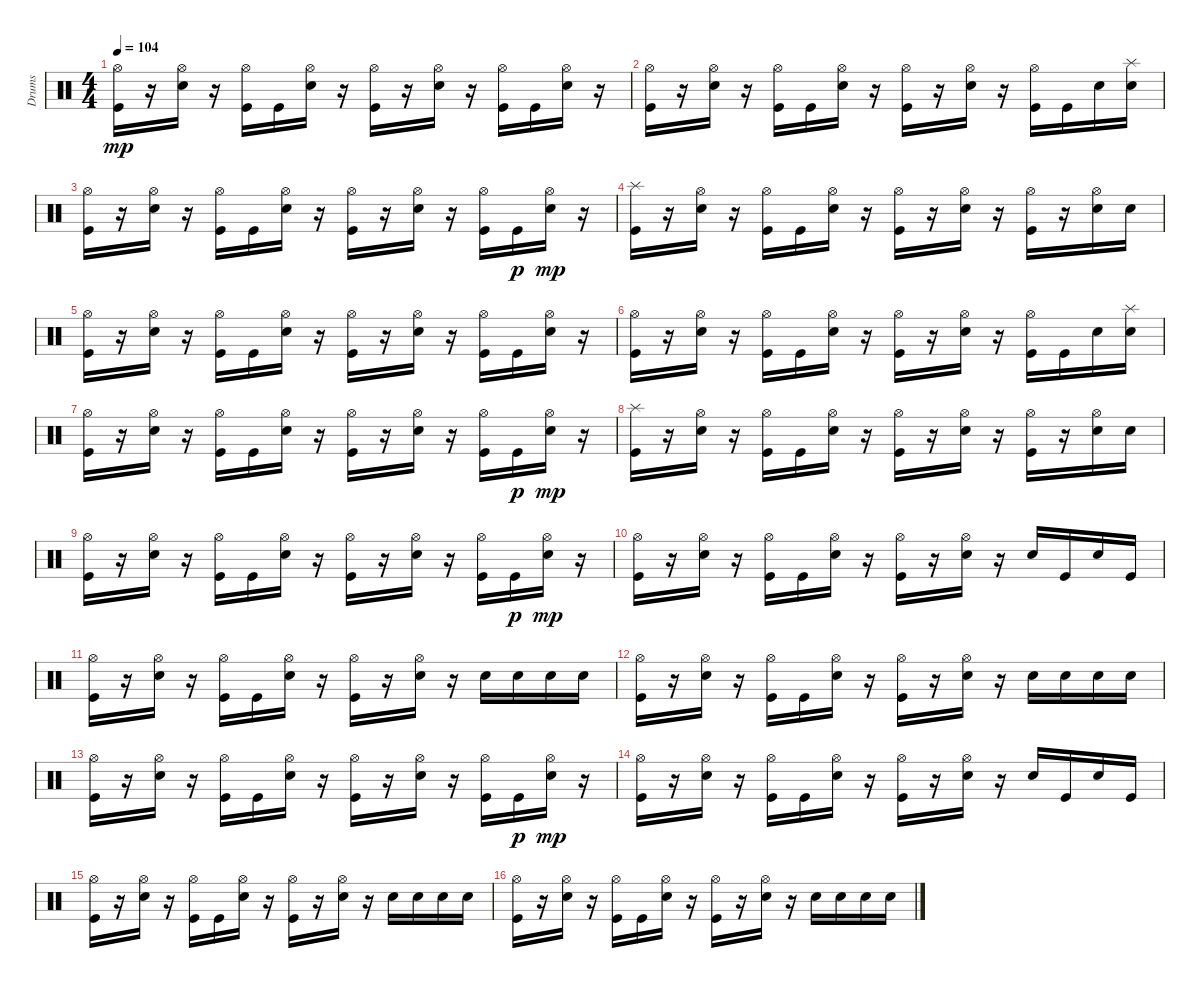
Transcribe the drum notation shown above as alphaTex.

\track ("Drums" "Drums") {instrument percussion}
\staff {score}
\articulation defaults
\ts (4 4)
\tempo 104
\clef neutral
\ks c
("Hi-Hat (open)" "Kick (hit)").16{dy mp} r.16 ("Hi-Hat (open)" "Snare (hit) 2").16 r.16 ("Hi-Hat (open)" "Kick (hit)").16 "Kick (hit)".16 ("Hi-Hat (open)" "Snare (hit) 2").16 r.16 ("Hi-Hat (open)" "Kick (hit)").16 r.16 ("Hi-Hat (open)" "Snare (hit) 2").16 r.16 ("Hi-Hat (open)" "Kick (hit)").16 "Kick (hit)".16 ("Hi-Hat (open)" "Snare (hit) 2").16 r.16 |
("Hi-Hat (open)" "Kick (hit)").16 r.16 ("Hi-Hat (open)" "Snare (hit) 2").16 r.16 ("Hi-Hat (open)" "Kick (hit)").16 "Kick (hit)".16 ("Hi-Hat (open)" "Snare (hit) 2").16 r.16 ("Hi-Hat (open)" "Kick (hit)").16 r.16 ("Hi-Hat (open)" "Snare (hit) 2").16 r.16 ("Hi-Hat (open)" "Kick (hit)").16 "Kick (hit)".16 "Snare (hit) 2".16 ("Splash (hit)" "Snare (hit) 2").16 |
("Hi-Hat (open)" "Kick (hit)").16 r.16 ("Hi-Hat (open)" "Snare (hit) 2").16 r.16 ("Hi-Hat (open)" "Kick (hit)").16 "Kick (hit)".16 ("Hi-Hat (open)" "Snare (hit) 2").16 r.16 ("Hi-Hat (open)" "Kick (hit)").16 r.16 ("Hi-Hat (open)" "Snare (hit) 2").16 r.16 ("Hi-Hat (open)" "Kick (hit)").16 "Kick (hit)".16{dy p} ("Hi-Hat (open)" "Snare (hit) 2").16{dy mp} r.16 |
("Splash (hit)" "Kick (hit)").16 r.16 ("Hi-Hat (open)" "Snare (hit) 2").16 r.16 ("Hi-Hat (open)" "Kick (hit)").16 "Kick (hit)".16 ("Hi-Hat (open)" "Snare (hit) 2").16 r.16 ("Hi-Hat (open)" "Kick (hit)").16 r.16 ("Hi-Hat (open)" "Snare (hit) 2").16 r.16 ("Hi-Hat (open)" "Kick (hit)").16 r.16 ("Hi-Hat (open)" "Snare (hit) 2").16 "Snare (hit) 2".16 |
("Hi-Hat (open)" "Kick (hit)").16 r.16 ("Hi-Hat (open)" "Snare (hit) 2").16 r.16 ("Hi-Hat (open)" "Kick (hit)").16 "Kick (hit)".16 ("Hi-Hat (open)" "Snare (hit) 2").16 r.16 ("Hi-Hat (open)" "Kick (hit)").16 r.16 ("Hi-Hat (open)" "Snare (hit) 2").16 r.16 ("Hi-Hat (open)" "Kick (hit)").16 "Kick (hit)".16 ("Hi-Hat (open)" "Snare (hit) 2").16 r.16 |
("Hi-Hat (open)" "Kick (hit)").16 r.16 ("Hi-Hat (open)" "Snare (hit) 2").16 r.16 ("Hi-Hat (open)" "Kick (hit)").16 "Kick (hit)".16 ("Hi-Hat (open)" "Snare (hit) 2").16 r.16 ("Hi-Hat (open)" "Kick (hit)").16 r.16 ("Hi-Hat (open)" "Snare (hit) 2").16 r.16 ("Hi-Hat (open)" "Kick (hit)").16 "Kick (hit)".16 "Snare (hit) 2".16 ("Splash (hit)" "Snare (hit) 2").16 |
("Hi-Hat (open)" "Kick (hit)").16 r.16 ("Hi-Hat (open)" "Snare (hit) 2").16 r.16 ("Hi-Hat (open)" "Kick (hit)").16 "Kick (hit)".16 ("Hi-Hat (open)" "Snare (hit) 2").16 r.16 ("Hi-Hat (open)" "Kick (hit)").16 r.16 ("Hi-Hat (open)" "Snare (hit) 2").16 r.16 ("Hi-Hat (open)" "Kick (hit)").16 "Kick (hit)".16{dy p} ("Hi-Hat (open)" "Snare (hit) 2").16{dy mp} r.16 |
("Splash (hit)" "Kick (hit)").16 r.16 ("Hi-Hat (open)" "Snare (hit) 2").16 r.16 ("Hi-Hat (open)" "Kick (hit)").16 "Kick (hit)".16 ("Hi-Hat (open)" "Snare (hit) 2").16 r.16 ("Hi-Hat (open)" "Kick (hit)").16 r.16 ("Hi-Hat (open)" "Snare (hit) 2").16 r.16 ("Hi-Hat (open)" "Kick (hit)").16 r.16 ("Hi-Hat (open)" "Snare (hit) 2").16 "Snare (hit) 2".16 |
("Hi-Hat (open)" "Kick (hit)").16 r.16 ("Hi-Hat (open)" "Snare (hit) 2").16 r.16 ("Hi-Hat (open)" "Kick (hit)").16 "Kick (hit)".16 ("Hi-Hat (open)" "Snare (hit) 2").16 r.16 ("Hi-Hat (open)" "Kick (hit)").16 r.16 ("Hi-Hat (open)" "Snare (hit) 2").16 r.16 ("Hi-Hat (open)" "Kick (hit)").16 "Kick (hit)".16{dy p} ("Hi-Hat (open)" "Snare (hit) 2").16{dy mp} r.16 |
("Hi-Hat (open)" "Kick (hit)").16 r.16 ("Hi-Hat (open)" "Snare (hit) 2").16 r.16 ("Hi-Hat (open)" "Kick (hit)").16 "Kick (hit)".16 ("Hi-Hat (open)" "Snare (hit) 2").16 r.16 ("Hi-Hat (open)" "Kick (hit)").16 r.16 ("Hi-Hat (open)" "Snare (hit) 2").16 r.16 "Snare (hit) 2".16 "Kick (hit)".16 "Snare (hit) 2".16 "Kick (hit)".16 |
("Hi-Hat (open)" "Kick (hit)").16 r.16 ("Hi-Hat (open)" "Snare (hit) 2").16 r.16 ("Hi-Hat (open)" "Kick (hit)").16 "Kick (hit)".16 ("Hi-Hat (open)" "Snare (hit) 2").16 r.16 ("Hi-Hat (open)" "Kick (hit)").16 r.16 ("Hi-Hat (open)" "Snare (hit) 2").16 r.16 "Snare (hit) 2".16 "Snare (hit) 2".16 "Snare (hit) 2".16 "Snare (hit) 2".16 |
("Hi-Hat (open)" "Kick (hit)").16 r.16 ("Hi-Hat (open)" "Snare (hit) 2").16 r.16 ("Hi-Hat (open)" "Kick (hit)").16 "Kick (hit)".16 ("Hi-Hat (open)" "Snare (hit) 2").16 r.16 ("Hi-Hat (open)" "Kick (hit)").16 r.16 ("Hi-Hat (open)" "Snare (hit) 2").16 r.16 "Snare (hit) 2".16 "Snare (hit) 2".16 "Snare (hit) 2".16 "Snare (hit) 2".16 |
("Hi-Hat (open)" "Kick (hit)").16 r.16 ("Hi-Hat (open)" "Snare (hit) 2").16 r.16 ("Hi-Hat (open)" "Kick (hit)").16 "Kick (hit)".16 ("Hi-Hat (open)" "Snare (hit) 2").16 r.16 ("Hi-Hat (open)" "Kick (hit)").16 r.16 ("Hi-Hat (open)" "Snare (hit) 2").16 r.16 ("Hi-Hat (open)" "Kick (hit)").16 "Kick (hit)".16{dy p} ("Hi-Hat (open)" "Snare (hit) 2").16{dy mp} r.16 |
("Hi-Hat (open)" "Kick (hit)").16 r.16 ("Hi-Hat (open)" "Snare (hit) 2").16 r.16 ("Hi-Hat (open)" "Kick (hit)").16 "Kick (hit)".16 ("Hi-Hat (open)" "Snare (hit) 2").16 r.16 ("Hi-Hat (open)" "Kick (hit)").16 r.16 ("Hi-Hat (open)" "Snare (hit) 2").16 r.16 "Snare (hit) 2".16 "Kick (hit)".16 "Snare (hit) 2".16 "Kick (hit)".16 |
("Hi-Hat (open)" "Kick (hit)").16 r.16 ("Hi-Hat (open)" "Snare (hit) 2").16 r.16 ("Hi-Hat (open)" "Kick (hit)").16 "Kick (hit)".16 ("Hi-Hat (open)" "Snare (hit) 2").16 r.16 ("Hi-Hat (open)" "Kick (hit)").16 r.16 ("Hi-Hat (open)" "Snare (hit) 2").16 r.16 "Snare (hit) 2".16 "Snare (hit) 2".16 "Snare (hit) 2".16 "Snare (hit) 2".16 |
("Hi-Hat (open)" "Kick (hit)").16 r.16 ("Hi-Hat (open)" "Snare (hit) 2").16 r.16 ("Hi-Hat (open)" "Kick (hit)").16 "Kick (hit)".16 ("Hi-Hat (open)" "Snare (hit) 2").16 r.16 ("Hi-Hat (open)" "Kick (hit)").16 r.16 ("Hi-Hat (open)" "Snare (hit) 2").16 r.16 "Snare (hit) 2".16 "Snare (hit) 2".16 "Snare (hit) 2".16 "Snare (hit) 2".16
